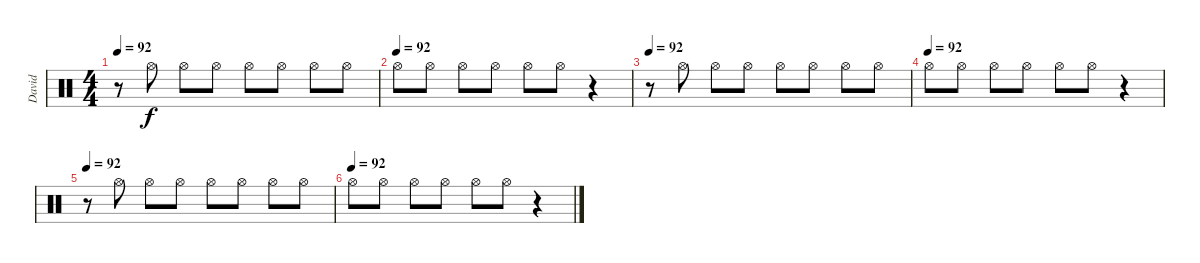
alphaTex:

\track ("David" "David") {instrument percussion}
\staff {score}
\articulation defaults
\ts (4 4)
\tempo 92
\clef neutral
\ks c
r.8{dy f} "Hi-Hat (open)".8 "Hi-Hat (open)".8 "Hi-Hat (open)".8 "Hi-Hat (open)".8 "Hi-Hat (open)".8 "Hi-Hat (open)".8 "Hi-Hat (open)".8 |
\tempo (92)
"Hi-Hat (open)".8 "Hi-Hat (open)".8 "Hi-Hat (open)".8 "Hi-Hat (open)".8 "Hi-Hat (open)".8 "Hi-Hat (open)".8 r.4 |
\tempo 92
r.8 "Hi-Hat (open)".8 "Hi-Hat (open)".8 "Hi-Hat (open)".8 "Hi-Hat (open)".8 "Hi-Hat (open)".8 "Hi-Hat (open)".8 "Hi-Hat (open)".8 |
\tempo (92)
"Hi-Hat (open)".8 "Hi-Hat (open)".8 "Hi-Hat (open)".8 "Hi-Hat (open)".8 "Hi-Hat (open)".8 "Hi-Hat (open)".8 r.4 |
\tempo 92
r.8 "Hi-Hat (open)".8 "Hi-Hat (open)".8 "Hi-Hat (open)".8 "Hi-Hat (open)".8 "Hi-Hat (open)".8 "Hi-Hat (open)".8 "Hi-Hat (open)".8 |
\tempo (92)
"Hi-Hat (open)".8 "Hi-Hat (open)".8 "Hi-Hat (open)".8 "Hi-Hat (open)".8 "Hi-Hat (open)".8 "Hi-Hat (open)".8 r.4
